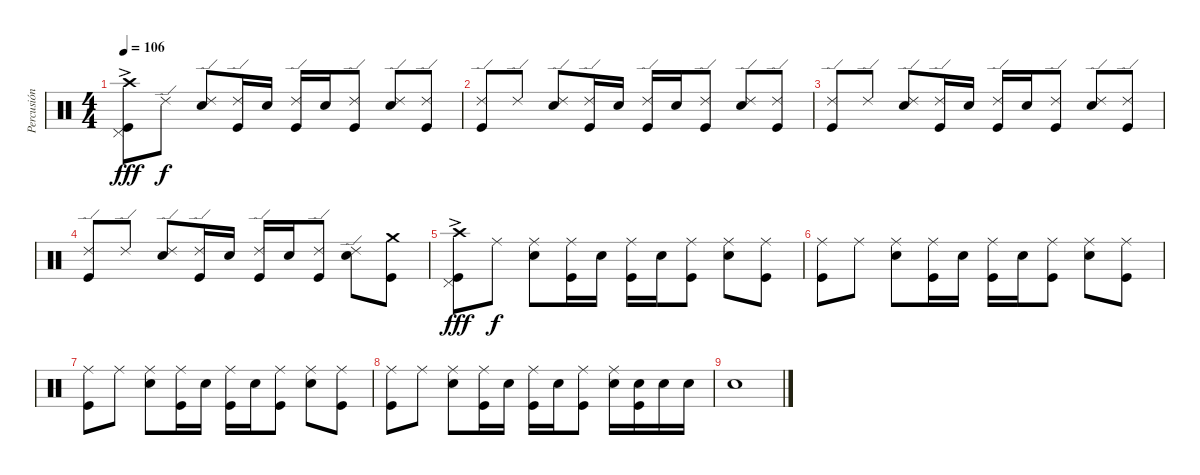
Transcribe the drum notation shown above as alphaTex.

\track ("Percusión" "Percusión") {instrument percussion}
\staff {score}
\articulation defaults
\ts (4 4)
\tempo 106
\clef neutral
\ks c
("Crash high (hit)"{ac} "Pedal Hi-Hat (hit)" "Kick (hit)").8{dy fff} "Ride (edge) 2".8{dy f} ("Ride (edge) 2" "Snare (hit) 2").8 ("Ride (edge) 2" "Kick (hit)").16 "Snare (hit) 2".16 ("Ride (edge) 2" "Kick (hit)").16 "Snare (hit) 2".16 ("Ride (edge) 2" "Kick (hit)").8 ("Ride (edge) 2" "Snare (hit) 2").8 ("Ride (edge) 2" "Kick (hit)").8 |
("Ride (edge) 2" "Kick (hit)").8 "Ride (edge) 2".8 ("Ride (edge) 2" "Snare (hit) 2").8 ("Ride (edge) 2" "Kick (hit)").16 "Snare (hit) 2".16 ("Ride (edge) 2" "Kick (hit)").16 "Snare (hit) 2".16 ("Ride (edge) 2" "Kick (hit)").8 ("Ride (edge) 2" "Snare (hit) 2").8 ("Ride (edge) 2" "Kick (hit)").8 |
("Ride (edge) 2" "Kick (hit)").8 "Ride (edge) 2".8 ("Ride (edge) 2" "Snare (hit) 2").8 ("Ride (edge) 2" "Kick (hit)").16 "Snare (hit) 2".16 ("Ride (edge) 2" "Kick (hit)").16 "Snare (hit) 2".16 ("Ride (edge) 2" "Kick (hit)").8 ("Ride (edge) 2" "Snare (hit) 2").8 ("Ride (edge) 2" "Kick (hit)").8 |
("Ride (edge) 2" "Kick (hit)").8 "Ride (edge) 2".8 ("Ride (edge) 2" "Snare (hit) 2").8 ("Ride (edge) 2" "Kick (hit)").16 "Snare (hit) 2".16 ("Ride (edge) 2" "Kick (hit)").16 "Snare (hit) 2".16 ("Ride (edge) 2" "Kick (hit)").8 ("Ride (edge) 2" "Snare (hit) 2").8 ("Crash medium (hit)" "Kick (hit)").8 |
("Crash high (hit)"{ac} "Pedal Hi-Hat (hit)" "Kick (hit)").8{dy fff} "Ride (middle)".8{dy f} ("Ride (middle)" "Snare (hit) 2").8 ("Ride (middle)" "Kick (hit)").16 "Snare (hit) 2".16 ("Ride (middle)" "Kick (hit)").16 "Snare (hit) 2".16 ("Ride (middle)" "Kick (hit)").8 ("Ride (middle)" "Snare (hit) 2").8 ("Ride (middle)" "Kick (hit)").8 |
("Ride (middle)" "Kick (hit)").8 "Ride (middle)".8 ("Ride (middle)" "Snare (hit) 2").8 ("Ride (middle)" "Kick (hit)").16 "Snare (hit) 2".16 ("Ride (middle)" "Kick (hit)").16 "Snare (hit) 2".16 ("Ride (middle)" "Kick (hit)").8 ("Ride (middle)" "Snare (hit) 2").8 ("Ride (middle)" "Kick (hit)").8 |
("Ride (middle)" "Kick (hit)").8 "Ride (middle)".8 ("Ride (middle)" "Snare (hit) 2").8 ("Ride (middle)" "Kick (hit)").16 "Snare (hit) 2".16 ("Ride (middle)" "Kick (hit)").16 "Snare (hit) 2".16 ("Ride (middle)" "Kick (hit)").8 ("Ride (middle)" "Snare (hit) 2").8 ("Ride (middle)" "Kick (hit)").8 |
("Ride (middle)" "Kick (hit)").8 "Ride (middle)".8 ("Ride (middle)" "Snare (hit) 2").8 ("Ride (middle)" "Kick (hit)").16 "Snare (hit) 2".16 ("Ride (middle)" "Kick (hit)").16 "Snare (hit) 2".16 ("Ride (middle)" "Kick (hit)").8 ("Ride (middle)" "Snare (hit) 2").16 ("Snare (hit) 2" "Kick (hit)").16 "Snare (hit) 2".16 "Snare (hit) 2".16 |
"Snare (hit) 2".1
